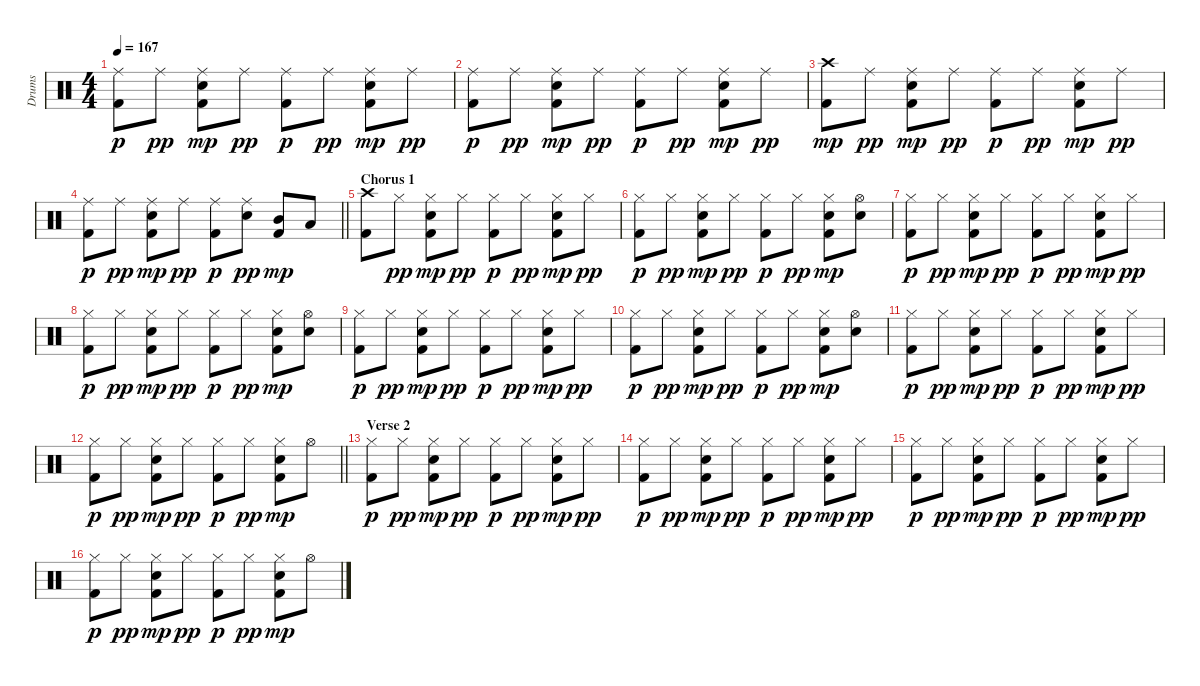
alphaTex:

\track ("Drums" "Drums") {instrument percussion}
\staff {score}
\articulation defaults
\ts (4 4)
\tempo 167
\clef neutral
\ks aminor
("Ride (middle)" "Kick (hit) 2").8{dy p} "Ride (middle)".8{dy pp} ("Ride (middle)" "Kick (hit) 2" "Electric Snare (hit)").8{dy mp} "Ride (middle)".8{dy pp} ("Ride (middle)" "Kick (hit) 2").8{dy p} "Ride (middle)".8{dy pp} ("Ride (middle)" "Kick (hit) 2" "Electric Snare (hit)").8{dy mp} "Ride (middle)".8{dy pp} |
("Ride (middle)" "Kick (hit) 2").8{dy p} "Ride (middle)".8{dy pp} ("Ride (middle)" "Kick (hit) 2" "Electric Snare (hit)").8{dy mp} "Ride (middle)".8{dy pp} ("Ride (middle)" "Kick (hit) 2").8{dy p} "Ride (middle)".8{dy pp} ("Ride (middle)" "Kick (hit) 2" "Electric Snare (hit)").8{dy mp} "Ride (middle)".8{dy pp} |
("Crash high (hit)" "Kick (hit) 2").8{dy mp} "Ride (middle)".8{dy pp} ("Ride (middle)" "Kick (hit) 2" "Electric Snare (hit)").8{dy mp} "Ride (middle)".8{dy pp} ("Ride (middle)" "Kick (hit) 2").8{dy p} "Ride (middle)".8{dy pp} ("Ride (middle)" "Kick (hit) 2" "Electric Snare (hit)").8{dy mp} "Ride (middle)".8{dy pp} |
\barLineRight lightlight
("Ride (middle)" "Kick (hit) 2").8{dy p} "Ride (middle)".8{dy pp} ("Ride (middle)" "Kick (hit) 2" "Electric Snare (hit)").8{dy mp} "Ride (middle)".8{dy pp} ("Ride (middle)" "Kick (hit) 2").8{dy p} ("Ride (middle)" "Electric Snare (hit)").8{dy pp} ("Mid Tom (hit)" "Kick (hit) 2").8{dy mp} "Low Tom (hit)".8 |
\section ("" "Chorus 1")
("Kick (hit) 2" "Crash high (hit)").8 "Hi-Hat (closed)".8{dy pp} ("Hi-Hat (closed)" "Electric Snare (hit)" "Kick (hit) 2").8{dy mp} "Hi-Hat (closed)".8{dy pp} ("Hi-Hat (closed)" "Kick (hit) 2").8{dy p} "Hi-Hat (closed)".8{dy pp} ("Hi-Hat (closed)" "Electric Snare (hit)" "Kick (hit) 2").8{dy mp} "Hi-Hat (closed)".8{dy pp} |
("Hi-Hat (closed)" "Kick (hit) 2").8{dy p} "Hi-Hat (closed)".8{dy pp} ("Hi-Hat (closed)" "Electric Snare (hit)" "Kick (hit) 2").8{dy mp} "Hi-Hat (closed)".8{dy pp} ("Hi-Hat (closed)" "Kick (hit) 2").8{dy p} "Hi-Hat (closed)".8{dy pp} ("Hi-Hat (closed)" "Electric Snare (hit)" "Kick (hit) 2").8{dy mp} ("Hi-Hat (open)" "Electric Snare (hit)").8 |
("Hi-Hat (closed)" "Kick (hit) 2").8{dy p} "Hi-Hat (closed)".8{dy pp} ("Hi-Hat (closed)" "Electric Snare (hit)" "Kick (hit) 2").8{dy mp} "Hi-Hat (closed)".8{dy pp} ("Hi-Hat (closed)" "Kick (hit) 2").8{dy p} "Hi-Hat (closed)".8{dy pp} ("Hi-Hat (closed)" "Electric Snare (hit)" "Kick (hit) 2").8{dy mp} "Hi-Hat (closed)".8{dy pp} |
("Hi-Hat (closed)" "Kick (hit) 2").8{dy p} "Hi-Hat (closed)".8{dy pp} ("Hi-Hat (closed)" "Electric Snare (hit)" "Kick (hit) 2").8{dy mp} "Hi-Hat (closed)".8{dy pp} ("Hi-Hat (closed)" "Kick (hit) 2").8{dy p} "Hi-Hat (closed)".8{dy pp} ("Hi-Hat (closed)" "Electric Snare (hit)" "Kick (hit) 2").8{dy mp} ("Hi-Hat (open)" "Electric Snare (hit)").8 |
("Hi-Hat (closed)" "Kick (hit) 2").8{dy p} "Hi-Hat (closed)".8{dy pp} ("Hi-Hat (closed)" "Electric Snare (hit)" "Kick (hit) 2").8{dy mp} "Hi-Hat (closed)".8{dy pp} ("Hi-Hat (closed)" "Kick (hit) 2").8{dy p} "Hi-Hat (closed)".8{dy pp} ("Hi-Hat (closed)" "Electric Snare (hit)" "Kick (hit) 2").8{dy mp} "Hi-Hat (closed)".8{dy pp} |
("Hi-Hat (closed)" "Kick (hit) 2").8{dy p} "Hi-Hat (closed)".8{dy pp} ("Hi-Hat (closed)" "Electric Snare (hit)" "Kick (hit) 2").8{dy mp} "Hi-Hat (closed)".8{dy pp} ("Hi-Hat (closed)" "Kick (hit) 2").8{dy p} "Hi-Hat (closed)".8{dy pp} ("Hi-Hat (closed)" "Electric Snare (hit)" "Kick (hit) 2").8{dy mp} ("Hi-Hat (open)" "Electric Snare (hit)").8 |
("Hi-Hat (closed)" "Kick (hit) 2").8{dy p} "Hi-Hat (closed)".8{dy pp} ("Hi-Hat (closed)" "Electric Snare (hit)" "Kick (hit) 2").8{dy mp} "Hi-Hat (closed)".8{dy pp} ("Hi-Hat (closed)" "Kick (hit) 2").8{dy p} "Hi-Hat (closed)".8{dy pp} ("Hi-Hat (closed)" "Electric Snare (hit)" "Kick (hit) 2").8{dy mp} "Hi-Hat (closed)".8{dy pp} |
\barLineRight lightlight
("Hi-Hat (closed)" "Kick (hit) 2").8{dy p} "Hi-Hat (closed)".8{dy pp} ("Hi-Hat (closed)" "Electric Snare (hit)" "Kick (hit) 2").8{dy mp} "Hi-Hat (closed)".8{dy pp} ("Hi-Hat (closed)" "Kick (hit) 2").8{dy p} "Hi-Hat (closed)".8{dy pp} ("Hi-Hat (closed)" "Electric Snare (hit)" "Kick (hit) 2").8{dy mp} "Hi-Hat (open)".8 |
\section ("" "Verse 2")
("Hi-Hat (closed)" "Kick (hit) 2").8{dy p} "Hi-Hat (closed)".8{dy pp} ("Hi-Hat (closed)" "Electric Snare (hit)" "Kick (hit) 2").8{dy mp} "Hi-Hat (closed)".8{dy pp} ("Hi-Hat (closed)" "Kick (hit) 2").8{dy p} "Hi-Hat (closed)".8{dy pp} ("Hi-Hat (closed)" "Electric Snare (hit)" "Kick (hit) 2").8{dy mp} "Hi-Hat (closed)".8{dy pp} |
("Hi-Hat (closed)" "Kick (hit) 2").8{dy p} "Hi-Hat (closed)".8{dy pp} ("Hi-Hat (closed)" "Electric Snare (hit)" "Kick (hit) 2").8{dy mp} "Hi-Hat (closed)".8{dy pp} ("Hi-Hat (closed)" "Kick (hit) 2").8{dy p} "Hi-Hat (closed)".8{dy pp} ("Hi-Hat (closed)" "Electric Snare (hit)" "Kick (hit) 2").8{dy mp} "Hi-Hat (closed)".8{dy pp} |
("Hi-Hat (closed)" "Kick (hit) 2").8{dy p} "Hi-Hat (closed)".8{dy pp} ("Hi-Hat (closed)" "Electric Snare (hit)" "Kick (hit) 2").8{dy mp} "Hi-Hat (closed)".8{dy pp} ("Hi-Hat (closed)" "Kick (hit) 2").8{dy p} "Hi-Hat (closed)".8{dy pp} ("Hi-Hat (closed)" "Electric Snare (hit)" "Kick (hit) 2").8{dy mp} "Hi-Hat (closed)".8{dy pp} |
("Hi-Hat (closed)" "Kick (hit) 2").8{dy p} "Hi-Hat (closed)".8{dy pp} ("Hi-Hat (closed)" "Electric Snare (hit)" "Kick (hit) 2").8{dy mp} "Hi-Hat (closed)".8{dy pp} ("Hi-Hat (closed)" "Kick (hit) 2").8{dy p} "Hi-Hat (closed)".8{dy pp} ("Hi-Hat (closed)" "Electric Snare (hit)" "Kick (hit) 2").8{dy mp} "Hi-Hat (open)".8
